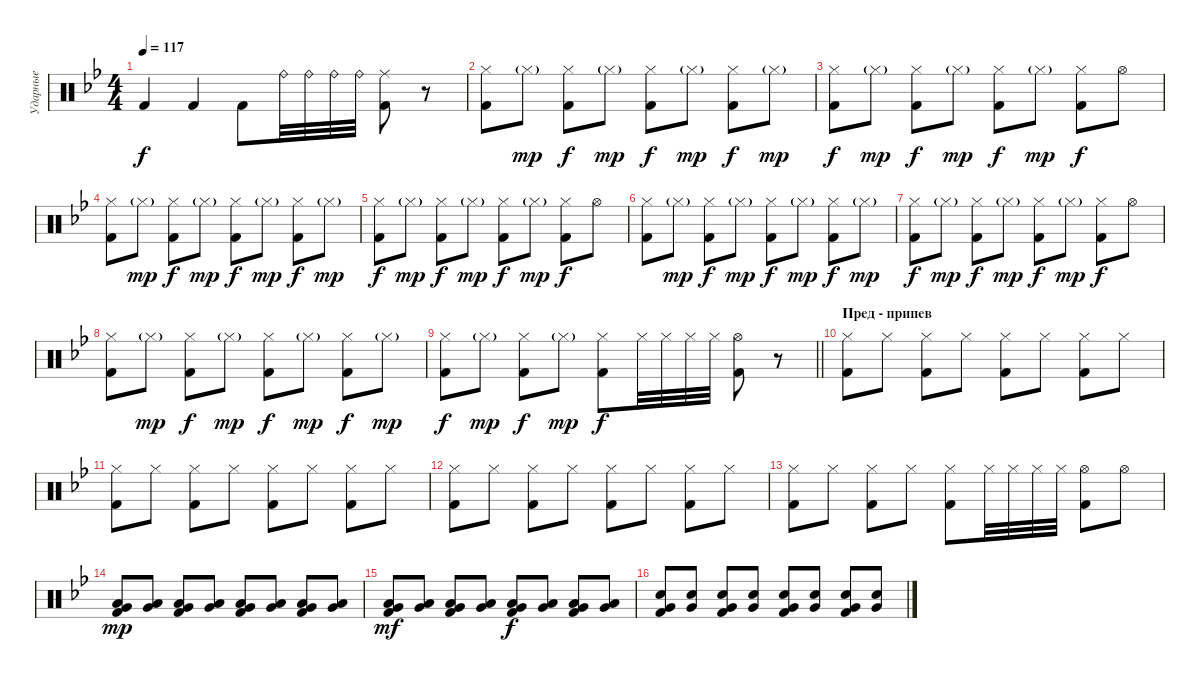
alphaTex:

\track ("Ударные" "Ударные") {instrument percussion}
\staff {score}
\articulation defaults
\ts (4 4)
\tempo 117
\clef neutral
\ks gminor "Kick (hit) 2".4{dy f} "Kick (hit) 2".4 "Kick (hit) 2".8 "Ride (bell)".32 "Ride (bell)".32 "Ride (bell)".32 "Ride (bell)".32
("Ride (middle)" "Kick (hit) 2").8 r.8 |
("Hi-Hat (closed)" "Kick (hit) 2").8 "Hi-Hat (closed)"{g}.8{dy mp} ("Hi-Hat (closed)" "Kick (hit) 2").8{dy f} "Hi-Hat (closed)"{g}.8{dy mp} ("Hi-Hat (closed)" "Kick (hit) 2").8{dy f} "Hi-Hat (closed)"{g}.8{dy mp} ("Hi-Hat (closed)" "Kick (hit) 2").8{dy f} "Hi-Hat (closed)"{g}.8{dy mp} |
("Hi-Hat (closed)" "Kick (hit) 2").8{dy f} "Hi-Hat (closed)"{g}.8{dy mp} ("Hi-Hat (closed)" "Kick (hit) 2").8{dy f} "Hi-Hat (closed)"{g}.8{dy mp} ("Hi-Hat (closed)" "Kick (hit) 2").8{dy f} "Hi-Hat (closed)"{g}.8{dy mp} ("Hi-Hat (closed)" "Kick (hit) 2").8{dy f} "Hi-Hat (open)".8 |
("Hi-Hat (closed)" "Kick (hit) 2").8 "Hi-Hat (closed)"{g}.8{dy mp} ("Hi-Hat (closed)" "Kick (hit) 2").8{dy f} "Hi-Hat (closed)"{g}.8{dy mp} ("Hi-Hat (closed)" "Kick (hit) 2").8{dy f} "Hi-Hat (closed)"{g}.8{dy mp} ("Hi-Hat (closed)" "Kick (hit) 2").8{dy f} "Hi-Hat (closed)"{g}.8{dy mp} |
("Hi-Hat (closed)" "Kick (hit) 2").8{dy f} "Hi-Hat (closed)"{g}.8{dy mp} ("Hi-Hat (closed)" "Kick (hit) 2").8{dy f} "Hi-Hat (closed)"{g}.8{dy mp} ("Hi-Hat (closed)" "Kick (hit) 2").8{dy f} "Hi-Hat (closed)"{g}.8{dy mp} ("Hi-Hat (closed)" "Kick (hit) 2").8{dy f} "Hi-Hat (open)".8 |
("Hi-Hat (closed)" "Kick (hit) 2").8 "Hi-Hat (closed)"{g}.8{dy mp} ("Hi-Hat (closed)" "Kick (hit) 2").8{dy f} "Hi-Hat (closed)"{g}.8{dy mp} ("Hi-Hat (closed)" "Kick (hit) 2").8{dy f} "Hi-Hat (closed)"{g}.8{dy mp} ("Hi-Hat (closed)" "Kick (hit) 2").8{dy f} "Hi-Hat (closed)"{g}.8{dy mp} |
("Hi-Hat (closed)" "Kick (hit) 2").8{dy f} "Hi-Hat (closed)"{g}.8{dy mp} ("Hi-Hat (closed)" "Kick (hit) 2").8{dy f} "Hi-Hat (closed)"{g}.8{dy mp} ("Hi-Hat (closed)" "Kick (hit) 2").8{dy f} "Hi-Hat (closed)"{g}.8{dy mp} ("Hi-Hat (closed)" "Kick (hit) 2").8{dy f} "Hi-Hat (open)".8 |
("Hi-Hat (closed)" "Kick (hit) 2").8 "Hi-Hat (closed)"{g}.8{dy mp} ("Hi-Hat (closed)" "Kick (hit) 2").8{dy f} "Hi-Hat (closed)"{g}.8{dy mp} ("Hi-Hat (closed)" "Kick (hit) 2").8{dy f} "Hi-Hat (closed)"{g}.8{dy mp} ("Hi-Hat (closed)" "Kick (hit) 2").8{dy f} "Hi-Hat (closed)"{g}.8{dy mp} |
\barLineRight lightlight
("Hi-Hat (closed)" "Kick (hit) 2").8{dy f} "Hi-Hat (closed)"{g}.8{dy mp} ("Hi-Hat (closed)" "Kick (hit) 2").8{dy f} "Hi-Hat (closed)"{g}.8{dy mp} ("Hi-Hat (closed)" "Kick (hit) 2").8{dy f} "Hi-Hat (closed)".32 "Hi-Hat (closed)".32 "Hi-Hat (closed)".32 "Hi-Hat (closed)".32 ("Hi-Hat (open)" "Kick (hit) 2").8 r.8 |
\section ("" "Пред - припев")
("Hi-Hat (closed)" "Kick (hit) 2").8 "Hi-Hat (closed)".8 ("Hi-Hat (closed)" "Kick (hit) 2").8 "Hi-Hat (closed)".8 ("Hi-Hat (closed)" "Kick (hit) 2").8 "Hi-Hat (closed)".8 ("Hi-Hat (closed)" "Kick (hit) 2").8 "Hi-Hat (closed)".8 |
("Hi-Hat (closed)" "Kick (hit) 2").8 "Hi-Hat (closed)".8 ("Hi-Hat (closed)" "Kick (hit) 2").8 "Hi-Hat (closed)".8 ("Hi-Hat (closed)" "Kick (hit) 2").8 "Hi-Hat (closed)".8 ("Hi-Hat (closed)" "Kick (hit) 2").8 "Hi-Hat (closed)".8 |
("Hi-Hat (closed)" "Kick (hit) 2").8 "Hi-Hat (closed)".8 ("Hi-Hat (closed)" "Kick (hit) 2").8 "Hi-Hat (closed)".8 ("Hi-Hat (closed)" "Kick (hit) 2").8 "Hi-Hat (closed)".8 ("Hi-Hat (closed)" "Kick (hit) 2").8 "Hi-Hat (closed)".8 |
("Hi-Hat (closed)" "Kick (hit) 2").8 "Hi-Hat (closed)".8 ("Hi-Hat (closed)" "Kick (hit) 2").8 "Hi-Hat (closed)".8 ("Hi-Hat (closed)" "Kick (hit) 2").8 "Hi-Hat (closed)".32 "Hi-Hat (closed)".32 "Hi-Hat (closed)".32 "Hi-Hat (closed)".32 ("Hi-Hat (open)" "Kick (hit) 2").8 "Hi-Hat (open)".8 |
("Low Tom (hit)" "Very Low Tom (hit)" "Kick (hit) 2").8{dy mp} ("Low Tom (hit)" "Very Low Tom (hit)").8 ("Low Tom (hit)" "Very Low Tom (hit)" "Kick (hit) 2").8 ("Low Tom (hit)" "Very Low Tom (hit)").8 ("Low Tom (hit)" "Very Low Tom (hit)" "Kick (hit) 2").8 ("Low Tom (hit)" "Very Low Tom (hit)").8 ("Low Tom (hit)" "Very Low Tom (hit)" "Kick (hit) 2").8 ("Low Tom (hit)" "Very Low Tom (hit)").8 |
("Low Tom (hit)" "Very Low Tom (hit)" "Kick (hit) 2").8{dy mf} ("Low Tom (hit)" "Very Low Tom (hit)").8 ("Low Tom (hit)" "Very Low Tom (hit)" "Kick (hit) 2").8 ("Low Tom (hit)" "Very Low Tom (hit)").8 ("Low Tom (hit)" "Very Low Tom (hit)" "Kick (hit) 2").8{dy f} ("Low Tom (hit)" "Very Low Tom (hit)").8 ("Low Tom (hit)" "Very Low Tom (hit)" "Kick (hit) 2").8 ("Low Tom (hit)" "Very Low Tom (hit)").8 |
("Electric Snare (hit)" "Very Low Tom (hit)" "Kick (hit) 2").8 ("Electric Snare (hit)" "Very Low Tom (hit)").8 ("Electric Snare (hit)" "Very Low Tom (hit)" "Kick (hit) 2").8 ("Electric Snare (hit)" "Very Low Tom (hit)").8 ("Electric Snare (hit)" "Very Low Tom (hit)" "Kick (hit) 2").8 ("Electric Snare (hit)" "Very Low Tom (hit)").8 ("Electric Snare (hit)" "Very Low Tom (hit)" "Kick (hit) 2").8 ("Electric Snare (hit)" "Very Low Tom (hit)").8
